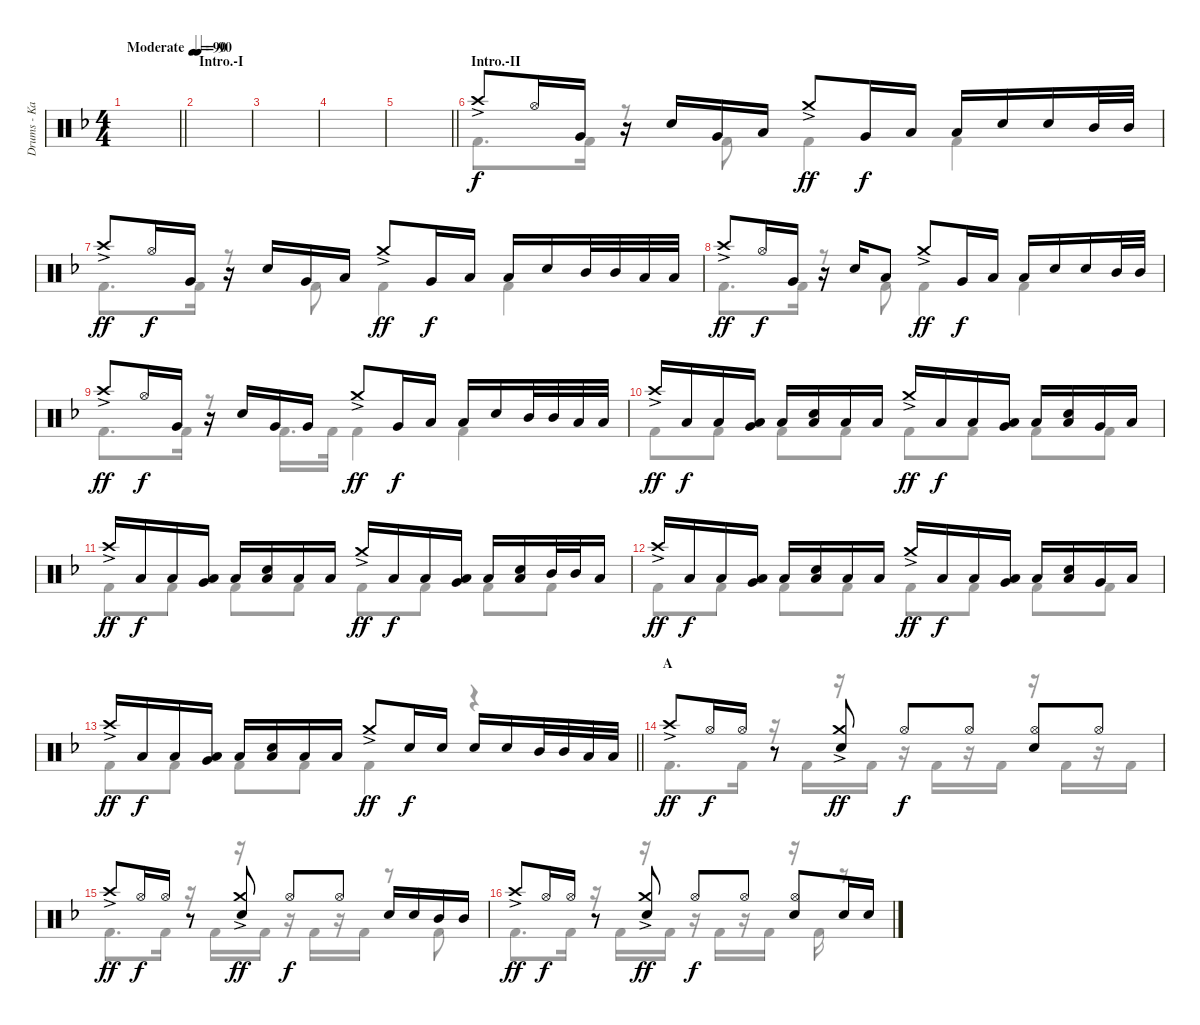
\track ("Drums - Kai" "Drums - Ka") {instrument percussion}
\staff {score}
\articulation defaults
\voice
\ts (4 4)
\tempo (90 "Moderate")
\tempo 35
\tempo (90 "Moderate")
\clef neutral
\barLineRight lightlight
\ks f
|
\section ("" "Intro.-I")
\tempo 90
|
|
|
\barLineRight lightlight
|
\section ("" "Intro.-II")
"Crash high (hit)"{ac}.8 "Hi-Hat (open)".16{dy f} "Very Low Tom (hit)".16 r.16 "Snare (hit) 2".16 "Very Low Tom (hit)".16 "Low Floor Tom (hit)".16 "Crash medium (hit)"{ac}.8{dy ff} "Very Low Tom (hit)".16{dy f} "Low Floor Tom (hit)".16 "Low Floor Tom (hit)".16 "Snare (hit) 2".16 "Snare (hit) 2".16 "Mid Tom (hit)".32 "Mid Tom (hit)".32 |
"Crash high (hit)"{ac}.8{dy ff} "Hi-Hat (open)".16{dy f} "Very Low Tom (hit)".16 r.16 "Snare (hit) 2".16 "Very Low Tom (hit)".16 "Low Floor Tom (hit)".16 "Crash medium (hit)"{ac}.8{dy ff} "Very Low Tom (hit)".16{dy f} "Low Floor Tom (hit)".16 "Low Floor Tom (hit)".16 "Snare (hit) 2".16 "Mid Tom (hit)".32 "Mid Tom (hit)".32 "Low Tom (hit)".32 "Low Tom (hit)".32 |
"Crash high (hit)"{ac}.8{dy ff} "Hi-Hat (open)".16{dy f} "Very Low Tom (hit)".16 r.16 "Snare (hit) 2".16 "Low Floor Tom (hit)".8 "Crash medium (hit)"{ac}.8{dy ff} "Very Low Tom (hit)".16{dy f} "Low Floor Tom (hit)".16 "Low Floor Tom (hit)".16 "Snare (hit) 2".16 "Snare (hit) 2".16 "Mid Tom (hit)".32 "Mid Tom (hit)".32 |
"Crash high (hit)"{ac}.8{dy ff} "Hi-Hat (open)".16{dy f} "Very Low Tom (hit)".16 r.16 "Snare (hit) 2".16 "Very Low Tom (hit)".16 "Very Low Tom (hit)".16 "Crash medium (hit)"{ac}.8{dy ff} "Very Low Tom (hit)".16{dy f} "Low Floor Tom (hit)".16 "Low Floor Tom (hit)".16 "Snare (hit) 2".16 "Mid Tom (hit)".32 "Mid Tom (hit)".32 "Low Tom (hit)".32 "Low Tom (hit)".32 |
"Crash high (hit)"{ac}.16{dy ff} "Low Floor Tom (hit)".16{dy f} "Low Floor Tom (hit)".16 ("Very Low Tom (hit)" "Low Floor Tom (hit)").16 "Low Floor Tom (hit)".16 ("Low Floor Tom (hit)" "Snare (hit) 2").16 "Low Floor Tom (hit)".16 "Low Floor Tom (hit)".16 "Crash medium (hit)"{ac}.16{dy ff} "Low Floor Tom (hit)".16{dy f} "Low Floor Tom (hit)".16 ("Very Low Tom (hit)" "Low Floor Tom (hit)").16 "Low Floor Tom (hit)".16 ("Low Floor Tom (hit)" "Snare (hit) 2").16 "Very Low Tom (hit)".16 "Low Floor Tom (hit)".16 |
"Crash high (hit)"{ac}.16{dy ff} "Low Floor Tom (hit)".16{dy f} "Low Floor Tom (hit)".16 ("Very Low Tom (hit)" "Low Floor Tom (hit)").16 "Low Floor Tom (hit)".16 ("Low Floor Tom (hit)" "Snare (hit) 2").16 "Low Floor Tom (hit)".16 "Low Floor Tom (hit)".16 "Crash medium (hit)"{ac}.16{dy ff} "Low Floor Tom (hit)".16{dy f} "Low Floor Tom (hit)".16 ("Very Low Tom (hit)" "Low Floor Tom (hit)").16 "Low Floor Tom (hit)".16 ("Low Floor Tom (hit)" "Snare (hit) 2").16 "Mid Tom (hit)".32 "Mid Tom (hit)".32 "Low Tom (hit)".16 |
"Crash high (hit)"{ac}.16{dy ff} "Low Floor Tom (hit)".16{dy f} "Low Floor Tom (hit)".16 ("Very Low Tom (hit)" "Low Floor Tom (hit)").16 "Low Floor Tom (hit)".16 ("Low Floor Tom (hit)" "Snare (hit) 2").16 "Low Floor Tom (hit)".16 "Low Floor Tom (hit)".16 "Crash medium (hit)"{ac}.16{dy ff} "Low Floor Tom (hit)".16{dy f} "Low Floor Tom (hit)".16 ("Very Low Tom (hit)" "Low Floor Tom (hit)").16 "Low Floor Tom (hit)".16 ("Low Floor Tom (hit)" "Snare (hit) 2").16 "Very Low Tom (hit)".16 "Low Floor Tom (hit)".16 |
\barLineRight lightlight "Crash high (hit)"{ac}.16{dy ff} "Low Floor Tom (hit)".16{dy f} "Low Floor Tom (hit)".16
("Very Low Tom (hit)" "Low Floor Tom (hit)").16 "Low Floor Tom (hit)".16 ("Low Floor Tom (hit)" "Snare (hit) 2").16 "Low Floor Tom (hit)".16 "Low Floor Tom (hit)".16 "Crash medium (hit)"{ac}.8{dy ff} "Snare (hit) 2".16{dy f} "Snare (hit) 2".16 "Snare (hit) 2".16 "Snare (hit) 2".16 "Mid Tom (hit)".32 "Mid Tom (hit)".32 "Low Tom (hit)".32 "Low Tom (hit)".32 |
\section ("" "A")
"Crash high (hit)"{ac}.8{dy ff} "Hi-Hat (open)".16{dy f} "Hi-Hat (open)".16 r.8 ("Crash medium (hit)"{ac} "Snare (hit) 2").8{dy ff} "Hi-Hat (open)".8{dy f} "Hi-Hat (open)".8 ("Hi-Hat (open)" "Snare (hit) 2").8 "Hi-Hat (open)".8 |
"Crash high (hit)"{ac}.8{dy ff} "Hi-Hat (open)".16{dy f} "Hi-Hat (open)".16 r.8 ("Crash medium (hit)"{ac} "Snare (hit) 2").8{dy ff} "Hi-Hat (open)".8{dy f} "Hi-Hat (open)".8 "Snare (hit) 2".16 "Snare (hit) 2".16 "Mid Tom (hit)".16 "Mid Tom (hit)".16 |
"Crash high (hit)"{ac}.8{dy ff} "Hi-Hat (open)".16{dy f} "Hi-Hat (open)".16 r.8 ("Crash medium (hit)"{ac} "Snare (hit) 2").8{dy ff} "Hi-Hat (open)".8{dy f} "Hi-Hat (open)".8 ("Hi-Hat (open)" "Snare (hit) 2").8 "Snare (hit) 2".16 "Snare (hit) 2".16
\voice
\clef neutral
\ottava regular
\simile none
\barLineRight lightlight
\ks f
|
|
|
|
\barLineRight lightlight
|
"Kick (hit) 2".8{d} "Kick (hit) 2".16 r.8 "Kick (hit) 2".8 "Kick (hit) 2".4 "Kick (hit) 2".4 |
"Kick (hit) 2".8{d} "Kick (hit) 2".16 r.8 "Kick (hit) 2".8 "Kick (hit) 2".4 "Kick (hit) 2".4 |
"Kick (hit) 2".8{d} "Kick (hit) 2".16 r.8 "Kick (hit) 2".8 "Kick (hit) 2".4 "Kick (hit) 2".4 |
"Kick (hit) 2".8{d} "Kick (hit) 2".16 r.8 "Kick (hit) 2".16{d} "Kick (hit) 2".32 "Kick (hit) 2".4 "Kick (hit) 2".4 |
"Kick (hit) 2".8 "Kick (hit) 2".8 "Kick (hit) 2".8 "Kick (hit) 2".8 "Kick (hit) 2".8 "Kick (hit) 2".8 "Kick (hit) 2".8 "Kick (hit) 2".8 |
"Kick (hit) 2".8 "Kick (hit) 2".8 "Kick (hit) 2".8 "Kick (hit) 2".8 "Kick (hit) 2".8 "Kick (hit) 2".8 "Kick (hit) 2".8 "Kick (hit) 2".8 |
"Kick (hit) 2".8 "Kick (hit) 2".8 "Kick (hit) 2".8 "Kick (hit) 2".8 "Kick (hit) 2".8 "Kick (hit) 2".8 "Kick (hit) 2".8 "Kick (hit) 2".8 |
\barLineRight lightlight "Kick (hit) 2".8 "Kick (hit) 2".8 "Kick (hit) 2".8 "Kick (hit) 2".8 "Kick (hit) 2".4
r.4 |
"Kick (hit) 2".8{d} "Kick (hit) 2".16 r.16 "Kick (hit) 2".16 r.16 "Kick (hit) 2".16 r.16 "Kick (hit) 2".16 r.16 "Kick (hit) 2".16 r.16 "Kick (hit) 2".16 r.16 "Kick (hit) 2".16 |
"Kick (hit) 2".8{d} "Kick (hit) 2".16 r.16 "Kick (hit) 2".16 r.16 "Kick (hit) 2".16 r.16 "Kick (hit) 2".16 r.16 "Kick (hit) 2".16 r.8 "Kick (hit) 2".8 |
"Kick (hit) 2".8{d} "Kick (hit) 2".16 r.16 "Kick (hit) 2".16 r.16 "Kick (hit) 2".16 r.16 "Kick (hit) 2".16 r.16 "Kick (hit) 2".16 r.16 "Kick (hit) 2".16 r.8
